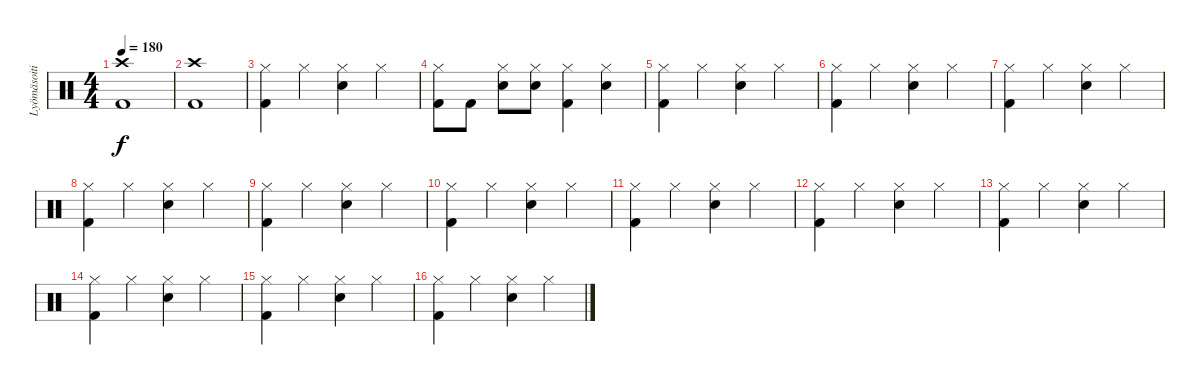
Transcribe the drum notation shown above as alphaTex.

\track ("Lyömäsoitin" "Lyömäsoiti") {instrument percussion}
\staff {score}
\articulation defaults
\ts (4 4)
\tempo 180
\clef neutral
\ks c
("Crash high (hit)" "Kick (hit) 2").1{dy f} |
("Crash high (hit)" "Kick (hit) 2").1 |
("Hi-Hat (closed)" "Kick (hit) 2").4 "Hi-Hat (closed)".4 ("Hi-Hat (closed)" "Electric Snare (hit)").4 "Hi-Hat (closed)".4 |
("Hi-Hat (closed)" "Kick (hit) 2").8 "Kick (hit) 2".8 ("Hi-Hat (closed)" "Electric Snare (hit)").8 ("Hi-Hat (closed)" "Electric Snare (hit)").8 ("Hi-Hat (closed)" "Kick (hit) 2").4 ("Hi-Hat (closed)" "Electric Snare (hit)").4 |
("Hi-Hat (closed)" "Kick (hit) 2").4 "Hi-Hat (closed)".4 ("Hi-Hat (closed)" "Electric Snare (hit)").4 "Hi-Hat (closed)".4 |
("Hi-Hat (closed)" "Kick (hit) 2").4 "Hi-Hat (closed)".4 ("Hi-Hat (closed)" "Electric Snare (hit)").4 "Hi-Hat (closed)".4 |
("Hi-Hat (closed)" "Kick (hit) 2").4 "Hi-Hat (closed)".4 ("Hi-Hat (closed)" "Electric Snare (hit)").4 "Hi-Hat (closed)".4 |
("Hi-Hat (closed)" "Kick (hit) 2").4 "Hi-Hat (closed)".4 ("Hi-Hat (closed)" "Electric Snare (hit)").4 "Hi-Hat (closed)".4 |
("Hi-Hat (closed)" "Kick (hit) 2").4 "Hi-Hat (closed)".4 ("Hi-Hat (closed)" "Electric Snare (hit)").4 "Hi-Hat (closed)".4 |
("Hi-Hat (closed)" "Kick (hit) 2").4 "Hi-Hat (closed)".4 ("Hi-Hat (closed)" "Electric Snare (hit)").4 "Hi-Hat (closed)".4 |
("Hi-Hat (closed)" "Kick (hit) 2").4 "Hi-Hat (closed)".4 ("Hi-Hat (closed)" "Electric Snare (hit)").4 "Hi-Hat (closed)".4 |
("Hi-Hat (closed)" "Kick (hit) 2").4 "Hi-Hat (closed)".4 ("Hi-Hat (closed)" "Electric Snare (hit)").4 "Hi-Hat (closed)".4 |
("Hi-Hat (closed)" "Kick (hit) 2").4 "Hi-Hat (closed)".4 ("Hi-Hat (closed)" "Electric Snare (hit)").4 "Hi-Hat (closed)".4 |
("Hi-Hat (closed)" "Kick (hit) 2").4 "Hi-Hat (closed)".4 ("Hi-Hat (closed)" "Electric Snare (hit)").4 "Hi-Hat (closed)".4 |
("Hi-Hat (closed)" "Kick (hit) 2").4 "Hi-Hat (closed)".4 ("Hi-Hat (closed)" "Electric Snare (hit)").4 "Hi-Hat (closed)".4 |
("Hi-Hat (closed)" "Kick (hit) 2").4 "Hi-Hat (closed)".4 ("Hi-Hat (closed)" "Electric Snare (hit)").4 "Hi-Hat (closed)".4
